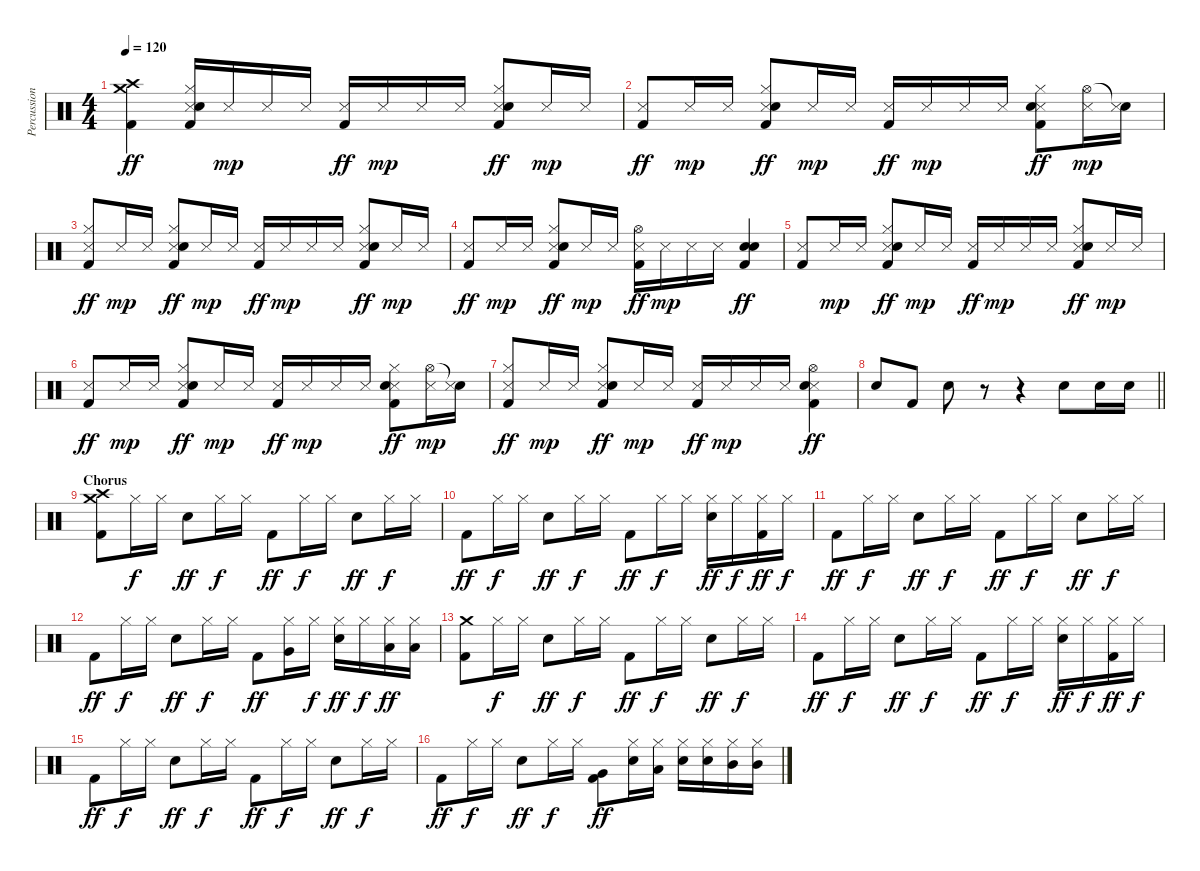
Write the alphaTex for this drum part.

\track ("Percussion" "Percussion") {instrument percussion}
\staff {score}
\articulation defaults
\ts (4 4)
\tempo 120
\clef neutral
\ks c
("Crash high (hit)" "Crash medium (hit)" "Kick (hit) 2").4{dy ff} ("Hi-Hat (closed)" "Metronome (hit)" "Hand Clap (hit)" "Kick (hit) 2").16 "Metronome (hit)".16{dy mp} "Metronome (hit)".16 "Metronome (hit)".16 ("Metronome (hit)" "Kick (hit) 2").16{dy ff} "Metronome (hit)".16{dy mp} "Metronome (hit)".16 "Metronome (hit)".16 ("Hi-Hat (closed)" "Metronome (hit)" "Hand Clap (hit)" "Kick (hit) 2").8{dy ff} "Metronome (hit)".16{dy mp} "Metronome (hit)".16 |
("Metronome (hit)" "Kick (hit) 2").8{dy ff} "Metronome (hit)".16{dy mp} "Metronome (hit)".16 ("Hi-Hat (closed)" "Metronome (hit)" "Hand Clap (hit)" "Kick (hit) 2").8{dy ff} "Metronome (hit)".16{dy mp} "Metronome (hit)".16 ("Metronome (hit)" "Kick (hit) 2").16{dy ff} "Metronome (hit)".16{dy mp} "Metronome (hit)".16 "Metronome (hit)".16 ("Hi-Hat (closed)" "Metronome (hit)" "Hand Clap (hit)" "Kick (hit) 2").8{dy ff} ("Hi-Hat (open)" "Metronome (hit)").16{dy mp} ("Snare (hit)"{t} "Metronome (hit)").16 |
("Hi-Hat (closed)" "Metronome (hit)" "Kick (hit) 2").8{dy ff} "Metronome (hit)".16{dy mp} "Metronome (hit)".16 ("Hi-Hat (closed)" "Metronome (hit)" "Hand Clap (hit)" "Kick (hit) 2").8{dy ff} "Metronome (hit)".16{dy mp} "Metronome (hit)".16 ("Metronome (hit)" "Kick (hit) 2").16{dy ff} "Metronome (hit)".16{dy mp} "Metronome (hit)".16 "Metronome (hit)".16 ("Hi-Hat (closed)" "Metronome (hit)" "Hand Clap (hit)" "Kick (hit) 2").8{dy ff} "Metronome (hit)".16{dy mp} "Metronome (hit)".16 |
("Metronome (hit)" "Kick (hit) 2").8{dy ff} "Metronome (hit)".16{dy mp} "Metronome (hit)".16 ("Hi-Hat (closed)" "Metronome (hit)" "Hand Clap (hit)" "Kick (hit) 2").8{dy ff} "Metronome (hit)".16{dy mp} "Metronome (hit)".16 ("Hi-Hat (open)" "Metronome (hit)" "Kick (hit) 2").16{dy ff} "Metronome (hit)".16{dy mp} "Metronome (hit)".16 "Metronome (hit)".16 ("Snare (hit) 2" "Hand Clap (hit)" "Kick (hit) 2").4{dy ff} |
("Metronome (hit)" "Kick (hit) 2").8 "Metronome (hit)".16{dy mp} "Metronome (hit)".16 ("Hi-Hat (closed)" "Metronome (hit)" "Hand Clap (hit)" "Kick (hit) 2").8{dy ff} "Metronome (hit)".16{dy mp} "Metronome (hit)".16 ("Metronome (hit)" "Kick (hit) 2").16{dy ff} "Metronome (hit)".16{dy mp} "Metronome (hit)".16 "Metronome (hit)".16 ("Hi-Hat (closed)" "Metronome (hit)" "Hand Clap (hit)" "Kick (hit) 2").8{dy ff} "Metronome (hit)".16{dy mp} "Metronome (hit)".16 |
("Metronome (hit)" "Kick (hit) 2").8{dy ff} "Metronome (hit)".16{dy mp} "Metronome (hit)".16 ("Hi-Hat (closed)" "Metronome (hit)" "Hand Clap (hit)" "Kick (hit) 2").8{dy ff} "Metronome (hit)".16{dy mp} "Metronome (hit)".16 ("Metronome (hit)" "Kick (hit) 2").16{dy ff} "Metronome (hit)".16{dy mp} "Metronome (hit)".16 "Metronome (hit)".16 ("Hi-Hat (closed)" "Metronome (hit)" "Hand Clap (hit)" "Kick (hit) 2").8{dy ff} ("Hi-Hat (open)" "Metronome (hit)").16{dy mp} ("Snare (hit)"{t} "Metronome (hit)").16 |
("Hi-Hat (closed)" "Metronome (hit)" "Kick (hit) 2").8{dy ff} "Metronome (hit)".16{dy mp} "Metronome (hit)".16 ("Hi-Hat (closed)" "Metronome (hit)" "Hand Clap (hit)" "Kick (hit) 2").8{dy ff} "Metronome (hit)".16{dy mp} "Metronome (hit)".16 ("Metronome (hit)" "Kick (hit) 2").16{dy ff} "Metronome (hit)".16{dy mp} "Metronome (hit)".16 "Metronome (hit)".16 ("Hi-Hat (open)" "Metronome (hit)" "Hand Clap (hit)" "Kick (hit) 2").4{dy ff} |
\barLineRight lightlight "Electric Snare (hit)".8 "Kick (hit) 2".8 "Electric Snare (hit)".8
r.8 r.4 "Electric Snare (hit)".8 "Electric Snare (hit)".16 "Electric Snare (hit)".16 |
\section ("" "Chorus")
("Crash high (hit)" "Crash medium (hit)" "Kick (hit) 2").8 "Hi-Hat (closed)".16{dy f} "Hi-Hat (closed)".16 "Electric Snare (hit)".8{dy ff} "Hi-Hat (closed)".16{dy f} "Hi-Hat (closed)".16 "Kick (hit) 2".8{dy ff} "Hi-Hat (closed)".16{dy f} "Hi-Hat (closed)".16 "Electric Snare (hit)".8{dy ff} "Hi-Hat (closed)".16{dy f} "Hi-Hat (closed)".16 |
"Kick (hit) 2".8{dy ff} "Hi-Hat (closed)".16{dy f} "Hi-Hat (closed)".16 "Electric Snare (hit)".8{dy ff} "Hi-Hat (closed)".16{dy f} "Hi-Hat (closed)".16 "Kick (hit) 2".8{dy ff} "Hi-Hat (closed)".16{dy f} "Hi-Hat (closed)".16 ("Hi-Hat (closed)" "Electric Snare (hit)").16{dy ff} "Hi-Hat (closed)".16{dy f} ("Hi-Hat (closed)" "Kick (hit) 2").16{dy ff} "Hi-Hat (closed)".16{dy f} |
"Kick (hit) 2".8{dy ff} "Hi-Hat (closed)".16{dy f} "Hi-Hat (closed)".16 "Electric Snare (hit)".8{dy ff} "Hi-Hat (closed)".16{dy f} "Hi-Hat (closed)".16 "Kick (hit) 2".8{dy ff} "Hi-Hat (closed)".16{dy f} "Hi-Hat (closed)".16 "Electric Snare (hit)".8{dy ff} "Hi-Hat (closed)".16{dy f} "Hi-Hat (closed)".16 |
"Kick (hit) 2".8{dy ff} "Hi-Hat (closed)".16{dy f} "Hi-Hat (closed)".16 "Electric Snare (hit)".8{dy ff} "Hi-Hat (closed)".16{dy f} "Hi-Hat (closed)".16 "Kick (hit) 2".8{dy ff} ("Hi-Hat (closed)" "Very Low Tom (hit)").16 "Hi-Hat (closed)".16{dy f} ("Hi-Hat (closed)" "Electric Snare (hit)").16{dy ff} "Hi-Hat (closed)".16{dy f} ("Hi-Hat (closed)" "Low Tom (hit)").16{dy ff} ("Hi-Hat (closed)" "Low Tom (hit)").16 |
("Crash medium (hit)" "Kick (hit) 2").8 "Hi-Hat (closed)".16{dy f} "Hi-Hat (closed)".16 "Electric Snare (hit)".8{dy ff} "Hi-Hat (closed)".16{dy f} "Hi-Hat (closed)".16 "Kick (hit) 2".8{dy ff} "Hi-Hat (closed)".16{dy f} "Hi-Hat (closed)".16 "Electric Snare (hit)".8{dy ff} "Hi-Hat (closed)".16{dy f} "Hi-Hat (closed)".16 |
"Kick (hit) 2".8{dy ff} "Hi-Hat (closed)".16{dy f} "Hi-Hat (closed)".16 "Electric Snare (hit)".8{dy ff} "Hi-Hat (closed)".16{dy f} "Hi-Hat (closed)".16 "Kick (hit) 2".8{dy ff} "Hi-Hat (closed)".16{dy f} "Hi-Hat (closed)".16 ("Hi-Hat (closed)" "Electric Snare (hit)").16{dy ff} "Hi-Hat (closed)".16{dy f} ("Hi-Hat (closed)" "Kick (hit) 2").16{dy ff} "Hi-Hat (closed)".16{dy f} |
"Kick (hit) 2".8{dy ff} "Hi-Hat (closed)".16{dy f} "Hi-Hat (closed)".16 "Electric Snare (hit)".8{dy ff} "Hi-Hat (closed)".16{dy f} "Hi-Hat (closed)".16 "Kick (hit) 2".8{dy ff} "Hi-Hat (closed)".16{dy f} "Hi-Hat (closed)".16 "Electric Snare (hit)".8{dy ff} "Hi-Hat (closed)".16{dy f} "Hi-Hat (closed)".16 |
"Kick (hit) 2".8{dy ff} "Hi-Hat (closed)".16{dy f} "Hi-Hat (closed)".16 "Electric Snare (hit)".8{dy ff} "Hi-Hat (closed)".16{dy f} "Hi-Hat (closed)".16 ("Very Low Tom (hit)" "Kick (hit) 2").8{dy ff} ("Hi-Hat (closed)" "Electric Snare (hit)").16 ("Hi-Hat (closed)" "Low Tom (hit)").16 ("Hi-Hat (closed)" "Electric Snare (hit)").16 ("Hi-Hat (closed)" "Electric Snare (hit)").16 ("Hi-Hat (closed)" "Mid Tom (hit)").16 ("Hi-Hat (closed)" "Mid Tom (hit)").16
